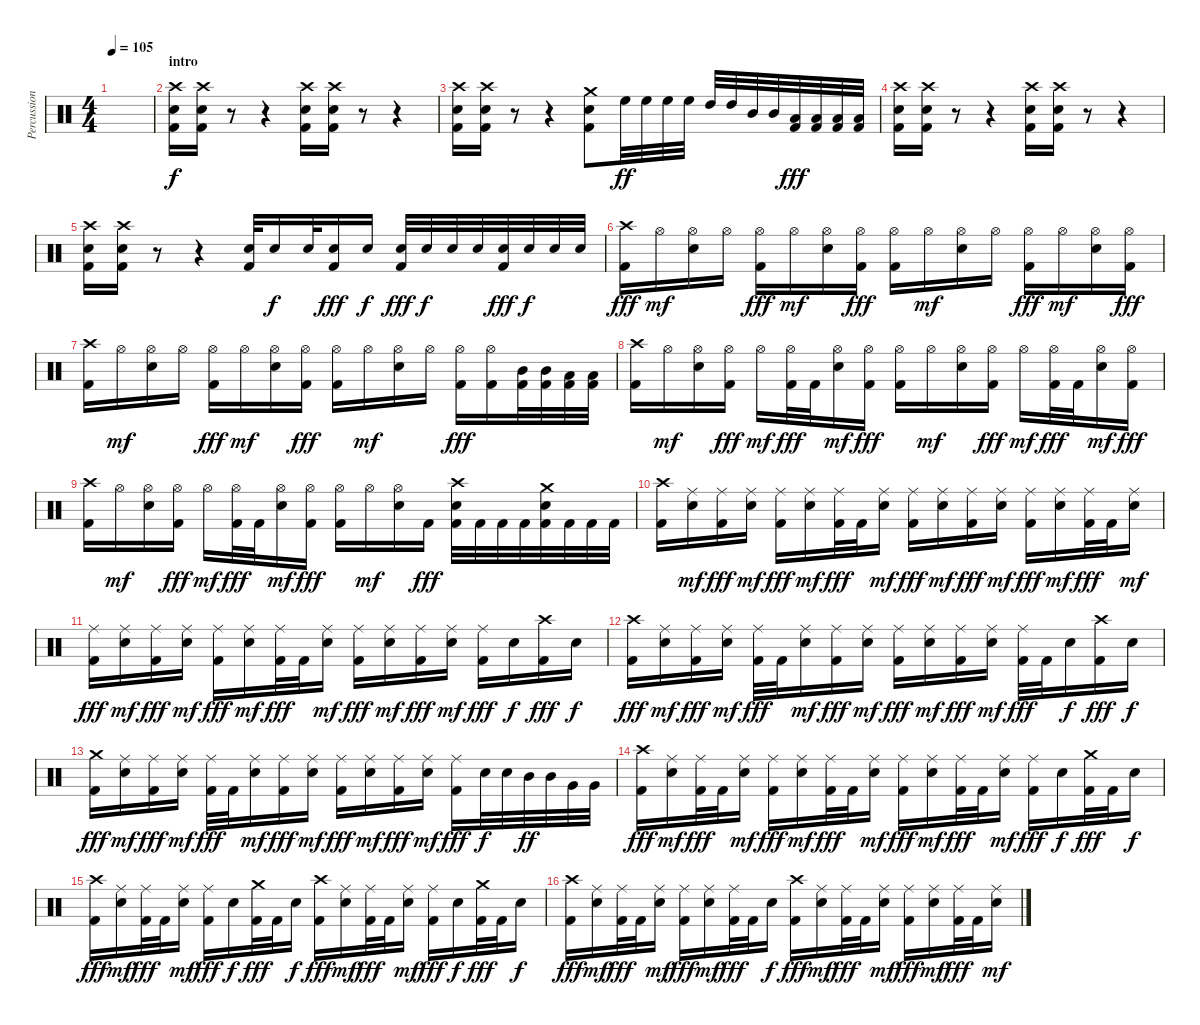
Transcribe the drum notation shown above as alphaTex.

\track ("Percussion" "Percussion") {instrument percussion}
\staff {score}
\articulation defaults
\ts (4 4)
\tempo 105
\clef neutral
\ks c
|
\section ("" "intro")
("Crash high (hit)" "Snare (hit) 2" "Kick (hit) 2").16 ("Crash high (hit)" "Snare (hit) 2" "Kick (hit) 2").16 r.8 r.4 ("Crash high (hit)" "Snare (hit) 2" "Kick (hit) 2").16 ("Crash high (hit)" "Snare (hit) 2" "Kick (hit) 2").16 r.8 r.4 |
("Crash high (hit)" "Snare (hit) 2" "Kick (hit) 2").16 ("Crash high (hit)" "Snare (hit) 2" "Kick (hit) 2").16 r.8 r.4 ("Crash medium (hit)" "Snare (hit) 2" "Kick (hit) 2").8 "High Floor Tom (hit)".32{dy ff} "High Floor Tom (hit)".32 "High Floor Tom (hit)".32 "High Floor Tom (hit)".32 "High Tom (hit)".32 "High Tom (hit)".32 "Mid Tom (hit)".32 "Mid Tom (hit)".32 ("Low Tom (hit)" "Kick (hit) 2").32{dy fff} ("Low Tom (hit)" "Kick (hit) 2").32 ("Low Floor Tom (hit)" "Kick (hit) 2").32 ("Low Floor Tom (hit)" "Kick (hit) 2").32 |
("Crash high (hit)" "Snare (hit) 2" "Kick (hit) 2").16 ("Crash high (hit)" "Snare (hit) 2" "Kick (hit) 2").16 r.8 r.4 ("Crash high (hit)" "Snare (hit) 2" "Kick (hit) 2").16 ("Crash high (hit)" "Snare (hit) 2" "Kick (hit) 2").16 r.8 r.4 |
("Crash high (hit)" "Snare (hit) 2" "Kick (hit) 2").16 ("Crash high (hit)" "Snare (hit) 2" "Kick (hit) 2").16 r.8 r.4 ("Snare (hit) 2" "Kick (hit) 2").32 "Snare (hit) 2".16{dy f} "Snare (hit) 2".32 ("Snare (hit) 2" "Kick (hit) 2").16{dy fff} "Snare (hit) 2".16{dy f} ("Snare (hit) 2" "Kick (hit) 2").32{dy fff} "Snare (hit) 2".32{dy f} "Snare (hit) 2".32 "Snare (hit) 2".32 ("Snare (hit) 2" "Kick (hit) 2").32{dy fff} "Snare (hit) 2".32{dy f} "Snare (hit) 2".32 "Snare (hit) 2".32 |
\section ("" "")
("Crash high (hit)" "Kick (hit) 2").16{dy fff} "Hi-Hat (open)".16{dy mf} ("Hi-Hat (open)" "Snare (hit) 2").16 "Hi-Hat (open)".16 ("Hi-Hat (open)" "Kick (hit) 2").16{dy fff} "Hi-Hat (open)".16{dy mf} ("Hi-Hat (open)" "Snare (hit) 2").16 ("Hi-Hat (open)" "Kick (hit) 2").16{dy fff} ("Hi-Hat (open)" "Kick (hit) 2").16 "Hi-Hat (open)".16{dy mf} ("Hi-Hat (open)" "Snare (hit) 2").16 "Hi-Hat (open)".16 ("Hi-Hat (open)" "Kick (hit) 2").16{dy fff} "Hi-Hat (open)".16{dy mf} ("Hi-Hat (open)" "Snare (hit) 2").16 ("Hi-Hat (open)" "Kick (hit) 2").16{dy fff} |
("Crash high (hit)" "Kick (hit) 2").16 "Hi-Hat (open)".16{dy mf} ("Hi-Hat (open)" "Snare (hit) 2").16 "Hi-Hat (open)".16 ("Hi-Hat (open)" "Kick (hit) 2").16{dy fff} "Hi-Hat (open)".16{dy mf} ("Hi-Hat (open)" "Snare (hit) 2").16 ("Hi-Hat (open)" "Kick (hit) 2").16{dy fff} ("Hi-Hat (open)" "Kick (hit) 2").16 "Hi-Hat (open)".16{dy mf} ("Hi-Hat (open)" "Snare (hit) 2").16 "Hi-Hat (open)".16 ("Hi-Hat (open)" "Kick (hit) 2").16{dy fff} ("Hi-Hat (open)" "Kick (hit) 2").16 ("Mid Tom (hit)" "Kick (hit) 2").32 ("Mid Tom (hit)" "Kick (hit) 2").32 ("Low Tom (hit)" "Kick (hit) 2").32 ("Low Tom (hit)" "Kick (hit) 2").32 |
("Crash high (hit)" "Kick (hit) 2").16 "Hi-Hat (open)".16{dy mf} ("Hi-Hat (open)" "Snare (hit) 2").16 ("Hi-Hat (open)" "Kick (hit) 2").16{dy fff} "Hi-Hat (open)".16{dy mf} ("Hi-Hat (open)" "Kick (hit) 2").32{dy fff} "Kick (hit) 2".32 ("Hi-Hat (open)" "Snare (hit) 2").16{dy mf} ("Hi-Hat (open)" "Kick (hit) 2").16{dy fff} ("Hi-Hat (open)" "Kick (hit) 2").16 "Hi-Hat (open)".16{dy mf} ("Hi-Hat (open)" "Snare (hit) 2").16 ("Hi-Hat (open)" "Kick (hit) 2").16{dy fff} "Hi-Hat (open)".16{dy mf} ("Hi-Hat (open)" "Kick (hit) 2").32{dy fff} "Kick (hit) 2".32 ("Hi-Hat (open)" "Snare (hit) 2").16{dy mf} ("Hi-Hat (open)" "Kick (hit) 2").16{dy fff} |
("Crash high (hit)" "Kick (hit) 2").16 "Hi-Hat (open)".16{dy mf} ("Hi-Hat (open)" "Snare (hit) 2").16 ("Hi-Hat (open)" "Kick (hit) 2").16{dy fff} "Hi-Hat (open)".16{dy mf} ("Hi-Hat (open)" "Kick (hit) 2").32{dy fff} "Kick (hit) 2".32 ("Hi-Hat (open)" "Snare (hit) 2").16{dy mf} ("Hi-Hat (open)" "Kick (hit) 2").16{dy fff} ("Hi-Hat (open)" "Kick (hit) 2").16 "Hi-Hat (open)".16{dy mf} ("Hi-Hat (open)" "Snare (hit) 2").16 "Kick (hit) 2".16{dy fff} ("Crash high (hit)" "Snare (hit) 2" "Kick (hit) 2").32 "Kick (hit) 2".32 "Kick (hit) 2".32 "Kick (hit) 2".32 ("Crash medium (hit)" "Snare (hit) 2" "Kick (hit) 2").32 "Kick (hit) 2".32 "Kick (hit) 2".32 "Kick (hit) 2".32 |
\section ("" "")
("Crash high (hit)" "Kick (hit) 2").16 ("Ride (middle)" "Snare (hit) 2").16{dy mf} ("Ride (middle)" "Kick (hit) 2").16{dy fff} ("Ride (middle)" "Snare (hit) 2").16{dy mf} ("Ride (middle)" "Kick (hit) 2").16{dy fff} ("Ride (middle)" "Snare (hit) 2").16{dy mf} ("Ride (middle)" "Kick (hit) 2").32{dy fff} "Kick (hit) 2".32 ("Ride (middle)" "Snare (hit) 2").16{dy mf} ("Ride (middle)" "Kick (hit) 2").16{dy fff} ("Ride (middle)" "Snare (hit) 2").16{dy mf} ("Ride (middle)" "Kick (hit) 2").16{dy fff} ("Ride (middle)" "Snare (hit) 2").16{dy mf} ("Ride (middle)" "Kick (hit) 2").16{dy fff} ("Ride (middle)" "Snare (hit) 2").16{dy mf} ("Ride (middle)" "Kick (hit) 2").32{dy fff} "Kick (hit) 2".32 ("Ride (middle)" "Snare (hit) 2").16{dy mf} |
("Ride (middle)" "Kick (hit) 2").16{dy fff} ("Ride (middle)" "Snare (hit) 2").16{dy mf} ("Ride (middle)" "Kick (hit) 2").16{dy fff} ("Ride (middle)" "Snare (hit) 2").16{dy mf} ("Ride (middle)" "Kick (hit) 2").16{dy fff} ("Ride (middle)" "Snare (hit) 2").16{dy mf} ("Ride (middle)" "Kick (hit) 2").32{dy fff} "Kick (hit) 2".32 ("Ride (middle)" "Snare (hit) 2").16{dy mf} ("Ride (middle)" "Kick (hit) 2").16{dy fff} ("Ride (middle)" "Snare (hit) 2").16{dy mf} ("Ride (middle)" "Kick (hit) 2").16{dy fff} ("Ride (middle)" "Snare (hit) 2").16{dy mf} ("Ride (middle)" "Kick (hit) 2").16{dy fff} "Snare (hit) 2".16{dy f} ("Crash high (hit)" "Kick (hit) 2").16{dy fff} "Snare (hit) 2".16{dy f} |
("Crash high (hit)" "Kick (hit) 2").16{dy fff} ("Ride (middle)" "Snare (hit) 2").16{dy mf} ("Ride (middle)" "Kick (hit) 2").16{dy fff} ("Ride (middle)" "Snare (hit) 2").16{dy mf} ("Ride (middle)" "Kick (hit) 2").32{dy fff} "Kick (hit) 2".32 ("Ride (middle)" "Snare (hit) 2").16{dy mf} ("Ride (middle)" "Kick (hit) 2").16{dy fff} ("Ride (middle)" "Snare (hit) 2").16{dy mf} ("Ride (middle)" "Kick (hit) 2").16{dy fff} ("Ride (middle)" "Snare (hit) 2").16{dy mf} ("Ride (middle)" "Kick (hit) 2").16{dy fff} ("Ride (middle)" "Snare (hit) 2").16{dy mf} ("Ride (middle)" "Kick (hit) 2").32{dy fff} "Kick (hit) 2".32 "Snare (hit) 2".16{dy f} ("Crash high (hit)" "Kick (hit) 2").16{dy fff} "Snare (hit) 2".16{dy f} |
("Crash medium (hit)" "Kick (hit) 2").16{dy fff} ("Ride (middle)" "Snare (hit) 2").16{dy mf} ("Ride (middle)" "Kick (hit) 2").16{dy fff} ("Ride (middle)" "Snare (hit) 2").16{dy mf} ("Ride (middle)" "Kick (hit) 2").32{dy fff} "Kick (hit) 2".32 ("Ride (middle)" "Snare (hit) 2").16{dy mf} ("Ride (middle)" "Kick (hit) 2").16{dy fff} ("Ride (middle)" "Snare (hit) 2").16{dy mf} ("Ride (middle)" "Kick (hit) 2").16{dy fff} ("Ride (middle)" "Snare (hit) 2").16{dy mf} ("Ride (middle)" "Kick (hit) 2").16{dy fff} ("Ride (middle)" "Snare (hit) 2").16{dy mf} ("Ride (middle)" "Kick (hit) 2").16{dy fff} "Snare (hit) 2".32{dy f} "Snare (hit) 2".32 "Mid Tom (hit)".32{dy ff} "Mid Tom (hit)".32 "Very Low Tom (hit)".32 "Very Low Tom (hit)".32 |
("Crash high (hit)" "Kick (hit) 2").16{dy fff} ("Ride (middle)" "Snare (hit) 2").16{dy mf} ("Ride (middle)" "Kick (hit) 2").32{dy fff} "Kick (hit) 2".32 ("Ride (middle)" "Snare (hit) 2").16{dy mf} ("Ride (middle)" "Kick (hit) 2").16{dy fff} ("Ride (middle)" "Snare (hit) 2").16{dy mf} ("Ride (middle)" "Kick (hit) 2").32{dy fff} "Kick (hit) 2".32 ("Ride (middle)" "Snare (hit) 2").16{dy mf} ("Ride (middle)" "Kick (hit) 2").16{dy fff} ("Ride (middle)" "Snare (hit) 2").16{dy mf} ("Ride (middle)" "Kick (hit) 2").32{dy fff} "Kick (hit) 2".32 ("Ride (middle)" "Snare (hit) 2").16{dy mf} ("Ride (middle)" "Kick (hit) 2").16{dy fff} "Snare (hit) 2".16{dy f} ("Crash medium (hit)" "Kick (hit) 2").32{dy fff} "Kick (hit) 2".32 "Snare (hit) 2".16{dy f} |
("Crash high (hit)" "Kick (hit) 2").16{dy fff} ("Ride (middle)" "Snare (hit) 2").16{dy mf} ("Ride (middle)" "Kick (hit) 2").32{dy fff} "Kick (hit) 2".32 ("Ride (middle)" "Snare (hit) 2").16{dy mf} ("Ride (middle)" "Kick (hit) 2").16{dy fff} "Snare (hit) 2".16{dy f} ("Crash medium (hit)" "Kick (hit) 2").32{dy fff} "Kick (hit) 2".32 "Snare (hit) 2".16{dy f} ("Crash high (hit)" "Kick (hit) 2").16{dy fff} ("Ride (middle)" "Snare (hit) 2").16{dy mf} ("Ride (middle)" "Kick (hit) 2").32{dy fff} "Kick (hit) 2".32 ("Ride (middle)" "Snare (hit) 2").16{dy mf} ("Ride (middle)" "Kick (hit) 2").16{dy fff} "Snare (hit) 2".16{dy f} ("Crash medium (hit)" "Kick (hit) 2").32{dy fff} "Kick (hit) 2".32 "Snare (hit) 2".16{dy f} |
("Crash high (hit)" "Kick (hit) 2").16{dy fff} ("Ride (middle)" "Snare (hit) 2").16{dy mf} ("Ride (middle)" "Kick (hit) 2").32{dy fff} "Kick (hit) 2".32 ("Ride (middle)" "Snare (hit) 2").16{dy mf} ("Ride (middle)" "Kick (hit) 2").16{dy fff} ("Ride (middle)" "Snare (hit) 2").16{dy mf} ("Ride (middle)" "Kick (hit) 2").32{dy fff} "Kick (hit) 2".32 "Snare (hit) 2".16{dy f} ("Crash high (hit)" "Kick (hit) 2").16{dy fff} ("Ride (middle)" "Snare (hit) 2").16{dy mf} ("Ride (middle)" "Kick (hit) 2").32{dy fff} "Kick (hit) 2".32 ("Ride (middle)" "Snare (hit) 2").16{dy mf} ("Ride (middle)" "Kick (hit) 2").16{dy fff} ("Ride (middle)" "Snare (hit) 2").16{dy mf} ("Ride (middle)" "Kick (hit) 2").32{dy fff} "Kick (hit) 2".32 ("Ride (middle)" "Snare (hit) 2").16{dy mf}
